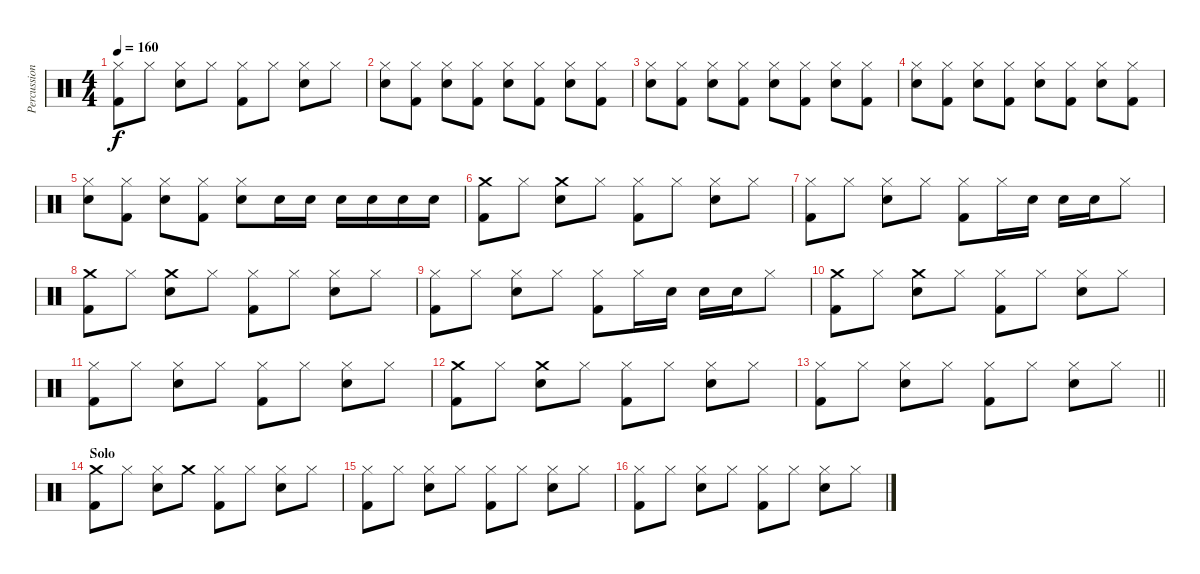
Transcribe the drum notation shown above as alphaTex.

\track ("Percussion" "Percussion") {instrument percussion}
\staff {score}
\articulation defaults
\ts (4 4)
\tempo 160
\clef neutral
\ks c
("Hi-Hat (closed)" "Kick (hit) 2").8{dy f} "Hi-Hat (closed)".8 ("Hi-Hat (closed)" "Snare (hit) 2").8 "Hi-Hat (closed)".8 ("Hi-Hat (closed)" "Kick (hit) 2").8 "Hi-Hat (closed)".8 ("Hi-Hat (closed)" "Snare (hit) 2").8 "Hi-Hat (closed)".8 |
("Hi-Hat (closed)" "Snare (hit) 2").8 ("Hi-Hat (closed)" "Kick (hit) 2").8 ("Hi-Hat (closed)" "Snare (hit) 2").8 ("Hi-Hat (closed)" "Kick (hit) 2").8 ("Hi-Hat (closed)" "Snare (hit) 2").8 ("Hi-Hat (closed)" "Kick (hit) 2").8 ("Hi-Hat (closed)" "Snare (hit) 2").8 ("Hi-Hat (closed)" "Kick (hit) 2").8 |
("Hi-Hat (closed)" "Snare (hit) 2").8 ("Hi-Hat (closed)" "Kick (hit) 2").8 ("Hi-Hat (closed)" "Snare (hit) 2").8 ("Hi-Hat (closed)" "Kick (hit) 2").8 ("Hi-Hat (closed)" "Snare (hit) 2").8 ("Hi-Hat (closed)" "Kick (hit) 2").8 ("Hi-Hat (closed)" "Snare (hit) 2").8 ("Hi-Hat (closed)" "Kick (hit) 2").8 |
("Hi-Hat (closed)" "Snare (hit) 2").8 ("Hi-Hat (closed)" "Kick (hit) 2").8 ("Hi-Hat (closed)" "Snare (hit) 2").8 ("Hi-Hat (closed)" "Kick (hit) 2").8 ("Hi-Hat (closed)" "Snare (hit) 2").8 ("Hi-Hat (closed)" "Kick (hit) 2").8 ("Hi-Hat (closed)" "Snare (hit) 2").8 ("Hi-Hat (closed)" "Kick (hit) 2").8 |
("Hi-Hat (closed)" "Snare (hit) 2").8 ("Hi-Hat (closed)" "Kick (hit) 2").8 ("Hi-Hat (closed)" "Snare (hit) 2").8 ("Hi-Hat (closed)" "Kick (hit) 2").8 ("Hi-Hat (closed)" "Snare (hit) 2").8 "Snare (hit) 2".16 "Snare (hit) 2".16 "Snare (hit) 2".16 "Snare (hit) 2".16 "Snare (hit) 2".16 "Snare (hit) 2".16 |
("Crash medium (hit)" "Kick (hit) 2").8 "Hi-Hat (closed)".8 ("Crash medium (hit)" "Snare (hit) 2").8 "Hi-Hat (closed)".8 ("Hi-Hat (closed)" "Kick (hit) 2").8 "Hi-Hat (closed)".8 ("Hi-Hat (closed)" "Snare (hit) 2").8 "Hi-Hat (closed)".8 |
("Hi-Hat (closed)" "Kick (hit) 2").8 "Hi-Hat (closed)".8 ("Hi-Hat (closed)" "Snare (hit) 2").8 "Hi-Hat (closed)".8 ("Hi-Hat (closed)" "Kick (hit) 2").8 "Hi-Hat (closed)".16 "Snare (hit) 2".16 "Snare (hit) 2".16 "Snare (hit) 2".16 "Hi-Hat (closed)".8 |
("Crash medium (hit)" "Kick (hit) 2").8 "Hi-Hat (closed)".8 ("Crash medium (hit)" "Snare (hit) 2").8 "Hi-Hat (closed)".8 ("Hi-Hat (closed)" "Kick (hit) 2").8 "Hi-Hat (closed)".8 ("Hi-Hat (closed)" "Snare (hit) 2").8 "Hi-Hat (closed)".8 |
("Hi-Hat (closed)" "Kick (hit) 2").8 "Hi-Hat (closed)".8 ("Hi-Hat (closed)" "Snare (hit) 2").8 "Hi-Hat (closed)".8 ("Hi-Hat (closed)" "Kick (hit) 2").8 "Hi-Hat (closed)".16 "Snare (hit) 2".16 "Snare (hit) 2".16 "Snare (hit) 2".16 "Hi-Hat (closed)".8 |
("Crash medium (hit)" "Kick (hit) 2").8 "Hi-Hat (closed)".8 ("Crash medium (hit)" "Snare (hit) 2").8 "Hi-Hat (closed)".8 ("Hi-Hat (closed)" "Kick (hit) 2").8 "Hi-Hat (closed)".8 ("Hi-Hat (closed)" "Snare (hit) 2").8 "Hi-Hat (closed)".8 |
("Hi-Hat (closed)" "Kick (hit) 2").8 "Hi-Hat (closed)".8 ("Hi-Hat (closed)" "Snare (hit) 2").8 "Hi-Hat (closed)".8 ("Hi-Hat (closed)" "Kick (hit) 2").8 "Hi-Hat (closed)".8 ("Hi-Hat (closed)" "Snare (hit) 2").8 "Hi-Hat (closed)".8 |
("Crash medium (hit)" "Kick (hit) 2").8 "Hi-Hat (closed)".8 ("Crash medium (hit)" "Snare (hit) 2").8 "Hi-Hat (closed)".8 ("Hi-Hat (closed)" "Kick (hit) 2").8 "Hi-Hat (closed)".8 ("Hi-Hat (closed)" "Snare (hit) 2").8 "Hi-Hat (closed)".8 |
\barLineRight lightlight
("Hi-Hat (closed)" "Kick (hit) 2").8 "Hi-Hat (closed)".8 ("Hi-Hat (closed)" "Snare (hit) 2").8 "Hi-Hat (closed)".8 ("Hi-Hat (closed)" "Kick (hit) 2").8 "Hi-Hat (closed)".8 ("Hi-Hat (closed)" "Snare (hit) 2").8 "Hi-Hat (closed)".8 |
\section ("" "Solo")
("Crash medium (hit)" "Kick (hit) 2").8 "Hi-Hat (closed)".8 ("Hi-Hat (closed)" "Snare (hit) 2").8 "Crash medium (hit)".8 ("Hi-Hat (closed)" "Kick (hit) 2").8 "Hi-Hat (closed)".8 ("Hi-Hat (closed)" "Snare (hit) 2").8 "Hi-Hat (closed)".8 |
("Hi-Hat (closed)" "Kick (hit) 2").8 "Hi-Hat (closed)".8 ("Hi-Hat (closed)" "Snare (hit) 2").8 "Hi-Hat (closed)".8 ("Hi-Hat (closed)" "Kick (hit) 2").8 "Hi-Hat (closed)".8 ("Hi-Hat (closed)" "Snare (hit) 2").8 "Hi-Hat (closed)".8 |
("Hi-Hat (closed)" "Kick (hit) 2").8 "Hi-Hat (closed)".8 ("Hi-Hat (closed)" "Snare (hit) 2").8 "Hi-Hat (closed)".8 ("Hi-Hat (closed)" "Kick (hit) 2").8 "Hi-Hat (closed)".8 ("Hi-Hat (closed)" "Snare (hit) 2").8 "Hi-Hat (closed)".8
